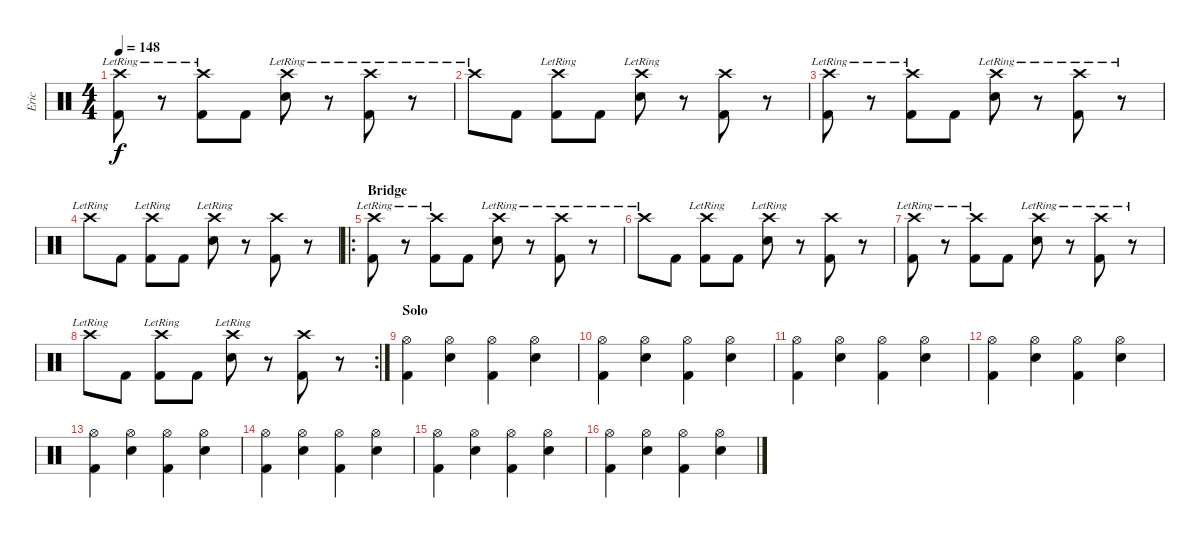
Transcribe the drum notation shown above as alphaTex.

\track ("Eric" "Eric") {instrument percussion}
\staff {score}
\articulation defaults
\ts (4 4)
\tempo 148
\clef neutral
\ks c
("Crash high (hit)"{lr} "Kick (hit) 2").8{dy f} r.8 ("Crash high (hit)"{lr} "Kick (hit) 2").8 "Kick (hit) 2".8 ("Crash high (hit)"{lr} "Electric Snare (hit)").8 r.8 ("Crash high (hit)"{lr} "Kick (hit) 2").8 r.8 |
"Crash high (hit)"{lr}.8 "Kick (hit) 2".8 ("Crash high (hit)"{lr} "Kick (hit) 2").8 "Kick (hit) 2".8 ("Crash high (hit)"{lr} "Electric Snare (hit)").8 r.8 ("Crash high (hit)" "Kick (hit) 2").8 r.8 |
("Crash high (hit)"{lr} "Kick (hit) 2").8 r.8 ("Crash high (hit)"{lr} "Kick (hit) 2").8 "Kick (hit) 2".8 ("Crash high (hit)"{lr} "Electric Snare (hit)").8 r.8 ("Crash high (hit)"{lr} "Kick (hit) 2").8 r.8 |
"Crash high (hit)"{lr}.8 "Kick (hit) 2".8 ("Crash high (hit)"{lr} "Kick (hit) 2").8 "Kick (hit) 2".8 ("Crash high (hit)"{lr} "Electric Snare (hit)").8 r.8 ("Crash high (hit)" "Kick (hit) 2").8 r.8 |
\ro
\section ("" "Bridge")
("Crash high (hit)"{lr} "Kick (hit) 2").8 r.8 ("Crash high (hit)"{lr} "Kick (hit) 2").8 "Kick (hit) 2".8 ("Crash high (hit)"{lr} "Electric Snare (hit)").8 r.8 ("Crash high (hit)"{lr} "Kick (hit) 2").8 r.8 |
"Crash high (hit)"{lr}.8 "Kick (hit) 2".8 ("Crash high (hit)"{lr} "Kick (hit) 2").8 "Kick (hit) 2".8 ("Crash high (hit)"{lr} "Electric Snare (hit)").8 r.8 ("Crash high (hit)" "Kick (hit) 2").8 r.8 |
("Crash high (hit)"{lr} "Kick (hit) 2").8 r.8 ("Crash high (hit)"{lr} "Kick (hit) 2").8 "Kick (hit) 2".8 ("Crash high (hit)"{lr} "Electric Snare (hit)").8 r.8 ("Crash high (hit)"{lr} "Kick (hit) 2").8 r.8 |
\rc 2 "Crash high (hit)"{lr}.8 "Kick (hit) 2".8
("Crash high (hit)"{lr} "Kick (hit) 2").8 "Kick (hit) 2".8 ("Crash high (hit)"{lr} "Electric Snare (hit)").8 r.8 ("Crash high (hit)" "Kick (hit) 2").8 r.8 |
\section ("" "Solo")
("Hi-Hat (open)" "Kick (hit) 2").4 ("Hi-Hat (open)" "Electric Snare (hit)").4 ("Hi-Hat (open)" "Kick (hit) 2").4 ("Hi-Hat (open)" "Electric Snare (hit)").4 |
("Hi-Hat (open)" "Kick (hit) 2").4 ("Hi-Hat (open)" "Electric Snare (hit)").4 ("Hi-Hat (open)" "Kick (hit) 2").4 ("Hi-Hat (open)" "Electric Snare (hit)").4 |
("Hi-Hat (open)" "Kick (hit) 2").4 ("Hi-Hat (open)" "Electric Snare (hit)").4 ("Hi-Hat (open)" "Kick (hit) 2").4 ("Hi-Hat (open)" "Electric Snare (hit)").4 |
("Hi-Hat (open)" "Kick (hit) 2").4 ("Hi-Hat (open)" "Electric Snare (hit)").4 ("Hi-Hat (open)" "Kick (hit) 2").4 ("Hi-Hat (open)" "Electric Snare (hit)").4 |
("Hi-Hat (open)" "Kick (hit) 2").4 ("Hi-Hat (open)" "Electric Snare (hit)").4 ("Hi-Hat (open)" "Kick (hit) 2").4 ("Hi-Hat (open)" "Electric Snare (hit)").4 |
("Hi-Hat (open)" "Kick (hit) 2").4 ("Hi-Hat (open)" "Electric Snare (hit)").4 ("Hi-Hat (open)" "Kick (hit) 2").4 ("Hi-Hat (open)" "Electric Snare (hit)").4 |
("Hi-Hat (open)" "Kick (hit) 2").4 ("Hi-Hat (open)" "Electric Snare (hit)").4 ("Hi-Hat (open)" "Kick (hit) 2").4 ("Hi-Hat (open)" "Electric Snare (hit)").4 |
("Hi-Hat (open)" "Kick (hit) 2").4 ("Hi-Hat (open)" "Electric Snare (hit)").4 ("Hi-Hat (open)" "Kick (hit) 2").4 ("Hi-Hat (open)" "Electric Snare (hit)").4
